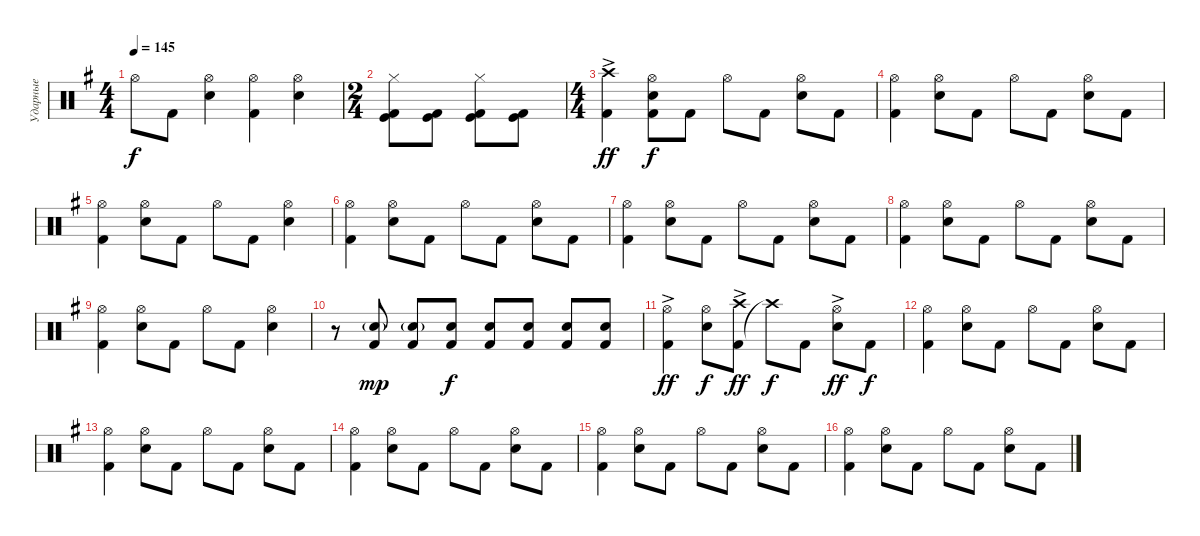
\track ("Ударные" "Ударные") {instrument percussion}
\staff {score}
\articulation defaults
\ts (4 4)
\tempo 145
\clef neutral
\ks g "Hi-Hat (open)"{t}.8{dy f} "Kick (hit) 2".8
("Snare (hit) 2" "Hi-Hat (open)").4 ("Kick (hit) 2" "Hi-Hat (open)").4 ("Snare (hit) 2" "Hi-Hat (open)").4 |
\ts (2 4)
("Kick (hit) 2" "Kick (hit)" "Hi-Hat (closed)").8 ("Kick (hit) 2" "Kick (hit)").8 ("Kick (hit) 2" "Kick (hit)" "Hi-Hat (closed)").8 ("Kick (hit) 2" "Kick (hit)").8 |
\ts (4 4)
("Kick (hit) 2" "Crash high (hit)"{ac}).4{dy ff} ("Kick (hit) 2" "Snare (hit) 2" "Hi-Hat (open)").8{dy f} "Kick (hit) 2".8 "Hi-Hat (open)".8 "Kick (hit) 2".8 ("Snare (hit) 2" "Hi-Hat (open)").8 "Kick (hit) 2".8 |
("Kick (hit) 2" "Hi-Hat (open)").4 ("Snare (hit) 2" "Hi-Hat (open)").8 "Kick (hit) 2".8 "Hi-Hat (open)".8 "Kick (hit) 2".8 ("Snare (hit) 2" "Hi-Hat (open)").8 "Kick (hit) 2".8 |
("Kick (hit) 2" "Hi-Hat (open)").4 ("Snare (hit) 2" "Hi-Hat (open)").8 "Kick (hit) 2".8 "Hi-Hat (open)".8 "Kick (hit) 2".8 ("Snare (hit) 2" "Hi-Hat (open)").4 |
("Kick (hit) 2" "Hi-Hat (open)").4 ("Snare (hit) 2" "Hi-Hat (open)").8 "Kick (hit) 2".8 "Hi-Hat (open)".8 "Kick (hit) 2".8 ("Snare (hit) 2" "Hi-Hat (open)").8 "Kick (hit) 2".8 |
("Kick (hit) 2" "Hi-Hat (open)").4 ("Snare (hit) 2" "Hi-Hat (open)").8 "Kick (hit) 2".8 "Hi-Hat (open)".8 "Kick (hit) 2".8 ("Snare (hit) 2" "Hi-Hat (open)").8 "Kick (hit) 2".8 |
("Kick (hit) 2" "Hi-Hat (open)").4 ("Snare (hit) 2" "Hi-Hat (open)").8 "Kick (hit) 2".8 "Hi-Hat (open)".8 "Kick (hit) 2".8 ("Snare (hit) 2" "Hi-Hat (open)").8 "Kick (hit) 2".8 |
("Kick (hit) 2" "Hi-Hat (open)").4 ("Snare (hit) 2" "Hi-Hat (open)").8 "Kick (hit) 2".8 "Hi-Hat (open)".8 "Kick (hit) 2".8 ("Snare (hit) 2" "Hi-Hat (open)").4 |
r.8 ("Kick (hit) 2" "Snare (hit) 2"{g}).8{dy mp} ("Kick (hit) 2" "Snare (hit) 2"{g}).8 ("Kick (hit) 2" "Snare (hit) 2").8{dy f} ("Kick (hit) 2" "Snare (hit) 2").8 ("Kick (hit) 2" "Snare (hit) 2").8 ("Kick (hit) 2" "Snare (hit) 2").8 ("Kick (hit) 2" "Snare (hit) 2").8 |
("Kick (hit) 2" "Hi-Hat (open)"{ac}).4{dy ff} ("Snare (hit) 2" "Hi-Hat (open)").8{dy f} ("Kick (hit) 2" "Crash high (hit)"{ac}).8{dy ff} "Crash high (hit)"{t}.8{dy f} "Kick (hit) 2".8 ("Snare (hit) 2" "Hi-Hat (open)"{ac}).8{dy ff} "Kick (hit) 2".8{dy f} |
("Kick (hit) 2" "Hi-Hat (open)").4 ("Snare (hit) 2" "Hi-Hat (open)").8 "Kick (hit) 2".8 "Hi-Hat (open)".8 "Kick (hit) 2".8 ("Snare (hit) 2" "Hi-Hat (open)").8 "Kick (hit) 2".8 |
("Kick (hit) 2" "Hi-Hat (open)").4 ("Snare (hit) 2" "Hi-Hat (open)").8 "Kick (hit) 2".8 "Hi-Hat (open)".8 "Kick (hit) 2".8 ("Snare (hit) 2" "Hi-Hat (open)").8 "Kick (hit) 2".8 |
("Kick (hit) 2" "Hi-Hat (open)").4 ("Snare (hit) 2" "Hi-Hat (open)").8 "Kick (hit) 2".8 "Hi-Hat (open)".8 "Kick (hit) 2".8 ("Snare (hit) 2" "Hi-Hat (open)").8 "Kick (hit) 2".8 |
("Kick (hit) 2" "Hi-Hat (open)").4 ("Snare (hit) 2" "Hi-Hat (open)").8 "Kick (hit) 2".8 "Hi-Hat (open)".8 "Kick (hit) 2".8 ("Snare (hit) 2" "Hi-Hat (open)").8 "Kick (hit) 2".8 |
("Kick (hit) 2" "Hi-Hat (open)").4 ("Snare (hit) 2" "Hi-Hat (open)").8 "Kick (hit) 2".8 "Hi-Hat (open)".8 "Kick (hit) 2".8 ("Snare (hit) 2" "Hi-Hat (open)").8 "Kick (hit) 2".8
